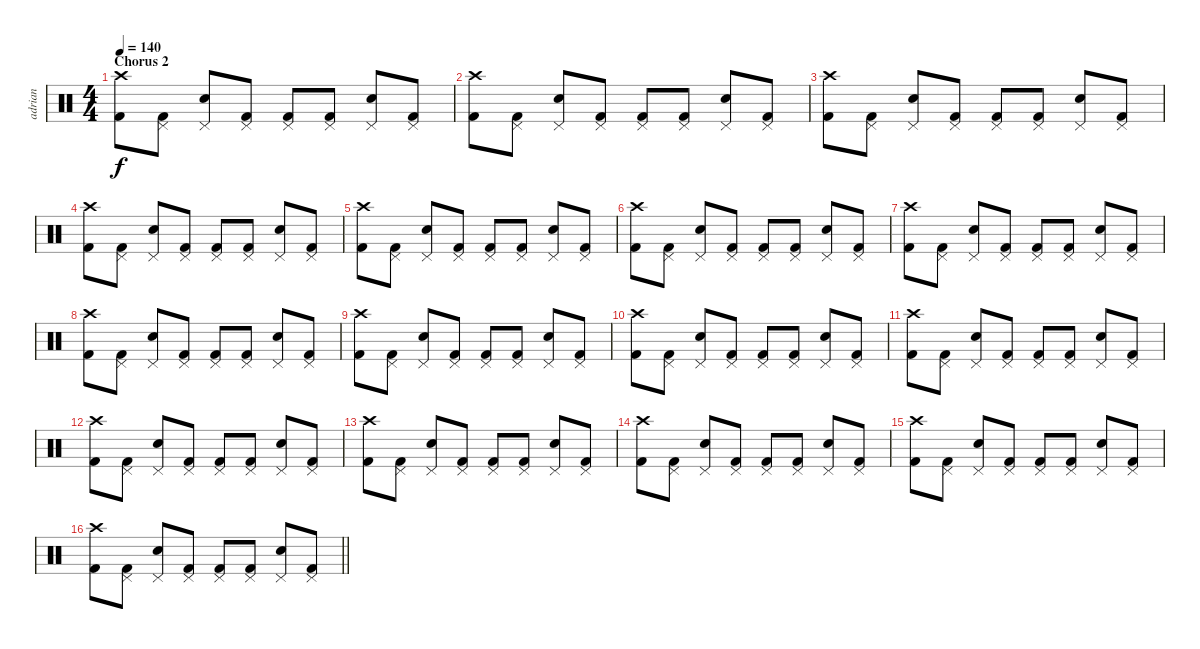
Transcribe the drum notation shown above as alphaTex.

\track ("adrian" "adrian") {instrument percussion}
\staff {score}
\articulation defaults
\ts (4 4)
\section ("" "Chorus 2")
\tempo 140
\clef neutral
\ks c
("Kick (hit) 2" "Crash high (hit)").8{dy f} ("Kick (hit) 2" "Pedal Hi-Hat (hit)").8 ("Electric Snare (hit)" "Pedal Hi-Hat (hit)").8 ("Kick (hit) 2" "Pedal Hi-Hat (hit)").8 ("Kick (hit) 2" "Pedal Hi-Hat (hit)").8 ("Kick (hit) 2" "Pedal Hi-Hat (hit)").8 ("Electric Snare (hit)" "Pedal Hi-Hat (hit)").8 ("Kick (hit) 2" "Pedal Hi-Hat (hit)").8 |
("Kick (hit) 2" "Crash high (hit)").8 ("Kick (hit) 2" "Pedal Hi-Hat (hit)").8 ("Electric Snare (hit)" "Pedal Hi-Hat (hit)").8 ("Kick (hit) 2" "Pedal Hi-Hat (hit)").8 ("Kick (hit) 2" "Pedal Hi-Hat (hit)").8 ("Kick (hit) 2" "Pedal Hi-Hat (hit)").8 ("Electric Snare (hit)" "Pedal Hi-Hat (hit)").8 ("Kick (hit) 2" "Pedal Hi-Hat (hit)").8 |
("Kick (hit) 2" "Crash high (hit)").8 ("Kick (hit) 2" "Pedal Hi-Hat (hit)").8 ("Electric Snare (hit)" "Pedal Hi-Hat (hit)").8 ("Kick (hit) 2" "Pedal Hi-Hat (hit)").8 ("Kick (hit) 2" "Pedal Hi-Hat (hit)").8 ("Kick (hit) 2" "Pedal Hi-Hat (hit)").8 ("Electric Snare (hit)" "Pedal Hi-Hat (hit)").8 ("Kick (hit) 2" "Pedal Hi-Hat (hit)").8 |
("Kick (hit) 2" "Crash high (hit)").8 ("Kick (hit) 2" "Pedal Hi-Hat (hit)").8 ("Electric Snare (hit)" "Pedal Hi-Hat (hit)").8 ("Kick (hit) 2" "Pedal Hi-Hat (hit)").8 ("Kick (hit) 2" "Pedal Hi-Hat (hit)").8 ("Kick (hit) 2" "Pedal Hi-Hat (hit)").8 ("Electric Snare (hit)" "Pedal Hi-Hat (hit)").8 ("Kick (hit) 2" "Pedal Hi-Hat (hit)").8 |
("Kick (hit) 2" "Crash high (hit)").8 ("Kick (hit) 2" "Pedal Hi-Hat (hit)").8 ("Electric Snare (hit)" "Pedal Hi-Hat (hit)").8 ("Kick (hit) 2" "Pedal Hi-Hat (hit)").8 ("Kick (hit) 2" "Pedal Hi-Hat (hit)").8 ("Kick (hit) 2" "Pedal Hi-Hat (hit)").8 ("Electric Snare (hit)" "Pedal Hi-Hat (hit)").8 ("Kick (hit) 2" "Pedal Hi-Hat (hit)").8 |
("Kick (hit) 2" "Crash high (hit)").8 ("Kick (hit) 2" "Pedal Hi-Hat (hit)").8 ("Electric Snare (hit)" "Pedal Hi-Hat (hit)").8 ("Kick (hit) 2" "Pedal Hi-Hat (hit)").8 ("Kick (hit) 2" "Pedal Hi-Hat (hit)").8 ("Kick (hit) 2" "Pedal Hi-Hat (hit)").8 ("Electric Snare (hit)" "Pedal Hi-Hat (hit)").8 ("Kick (hit) 2" "Pedal Hi-Hat (hit)").8 |
("Kick (hit) 2" "Crash high (hit)").8 ("Kick (hit) 2" "Pedal Hi-Hat (hit)").8 ("Electric Snare (hit)" "Pedal Hi-Hat (hit)").8 ("Kick (hit) 2" "Pedal Hi-Hat (hit)").8 ("Kick (hit) 2" "Pedal Hi-Hat (hit)").8 ("Kick (hit) 2" "Pedal Hi-Hat (hit)").8 ("Electric Snare (hit)" "Pedal Hi-Hat (hit)").8 ("Kick (hit) 2" "Pedal Hi-Hat (hit)").8 |
("Kick (hit) 2" "Crash high (hit)").8 ("Kick (hit) 2" "Pedal Hi-Hat (hit)").8 ("Electric Snare (hit)" "Pedal Hi-Hat (hit)").8 ("Kick (hit) 2" "Pedal Hi-Hat (hit)").8 ("Kick (hit) 2" "Pedal Hi-Hat (hit)").8 ("Kick (hit) 2" "Pedal Hi-Hat (hit)").8 ("Electric Snare (hit)" "Pedal Hi-Hat (hit)").8 ("Kick (hit) 2" "Pedal Hi-Hat (hit)").8 |
("Kick (hit) 2" "Crash high (hit)").8 ("Kick (hit) 2" "Pedal Hi-Hat (hit)").8 ("Electric Snare (hit)" "Pedal Hi-Hat (hit)").8 ("Kick (hit) 2" "Pedal Hi-Hat (hit)").8 ("Kick (hit) 2" "Pedal Hi-Hat (hit)").8 ("Kick (hit) 2" "Pedal Hi-Hat (hit)").8 ("Electric Snare (hit)" "Pedal Hi-Hat (hit)").8 ("Kick (hit) 2" "Pedal Hi-Hat (hit)").8 |
("Kick (hit) 2" "Crash high (hit)").8 ("Kick (hit) 2" "Pedal Hi-Hat (hit)").8 ("Electric Snare (hit)" "Pedal Hi-Hat (hit)").8 ("Kick (hit) 2" "Pedal Hi-Hat (hit)").8 ("Kick (hit) 2" "Pedal Hi-Hat (hit)").8 ("Kick (hit) 2" "Pedal Hi-Hat (hit)").8 ("Electric Snare (hit)" "Pedal Hi-Hat (hit)").8 ("Kick (hit) 2" "Pedal Hi-Hat (hit)").8 |
("Kick (hit) 2" "Crash high (hit)").8 ("Kick (hit) 2" "Pedal Hi-Hat (hit)").8 ("Electric Snare (hit)" "Pedal Hi-Hat (hit)").8 ("Kick (hit) 2" "Pedal Hi-Hat (hit)").8 ("Kick (hit) 2" "Pedal Hi-Hat (hit)").8 ("Kick (hit) 2" "Pedal Hi-Hat (hit)").8 ("Electric Snare (hit)" "Pedal Hi-Hat (hit)").8 ("Kick (hit) 2" "Pedal Hi-Hat (hit)").8 |
("Kick (hit) 2" "Crash high (hit)").8 ("Kick (hit) 2" "Pedal Hi-Hat (hit)").8 ("Electric Snare (hit)" "Pedal Hi-Hat (hit)").8 ("Kick (hit) 2" "Pedal Hi-Hat (hit)").8 ("Kick (hit) 2" "Pedal Hi-Hat (hit)").8 ("Kick (hit) 2" "Pedal Hi-Hat (hit)").8 ("Electric Snare (hit)" "Pedal Hi-Hat (hit)").8 ("Kick (hit) 2" "Pedal Hi-Hat (hit)").8 |
("Kick (hit) 2" "Crash high (hit)").8 ("Kick (hit) 2" "Pedal Hi-Hat (hit)").8 ("Electric Snare (hit)" "Pedal Hi-Hat (hit)").8 ("Kick (hit) 2" "Pedal Hi-Hat (hit)").8 ("Kick (hit) 2" "Pedal Hi-Hat (hit)").8 ("Kick (hit) 2" "Pedal Hi-Hat (hit)").8 ("Electric Snare (hit)" "Pedal Hi-Hat (hit)").8 ("Kick (hit) 2" "Pedal Hi-Hat (hit)").8 |
("Kick (hit) 2" "Crash high (hit)").8 ("Kick (hit) 2" "Pedal Hi-Hat (hit)").8 ("Electric Snare (hit)" "Pedal Hi-Hat (hit)").8 ("Kick (hit) 2" "Pedal Hi-Hat (hit)").8 ("Kick (hit) 2" "Pedal Hi-Hat (hit)").8 ("Kick (hit) 2" "Pedal Hi-Hat (hit)").8 ("Electric Snare (hit)" "Pedal Hi-Hat (hit)").8 ("Kick (hit) 2" "Pedal Hi-Hat (hit)").8 |
("Kick (hit) 2" "Crash high (hit)").8 ("Kick (hit) 2" "Pedal Hi-Hat (hit)").8 ("Electric Snare (hit)" "Pedal Hi-Hat (hit)").8 ("Kick (hit) 2" "Pedal Hi-Hat (hit)").8 ("Kick (hit) 2" "Pedal Hi-Hat (hit)").8 ("Kick (hit) 2" "Pedal Hi-Hat (hit)").8 ("Electric Snare (hit)" "Pedal Hi-Hat (hit)").8 ("Kick (hit) 2" "Pedal Hi-Hat (hit)").8 |
\barLineRight lightlight
("Kick (hit) 2" "Crash high (hit)").8 ("Kick (hit) 2" "Pedal Hi-Hat (hit)").8 ("Electric Snare (hit)" "Pedal Hi-Hat (hit)").8 ("Kick (hit) 2" "Pedal Hi-Hat (hit)").8 ("Kick (hit) 2" "Pedal Hi-Hat (hit)").8 ("Kick (hit) 2" "Pedal Hi-Hat (hit)").8 ("Electric Snare (hit)" "Pedal Hi-Hat (hit)").8 ("Kick (hit) 2" "Pedal Hi-Hat (hit)").8
